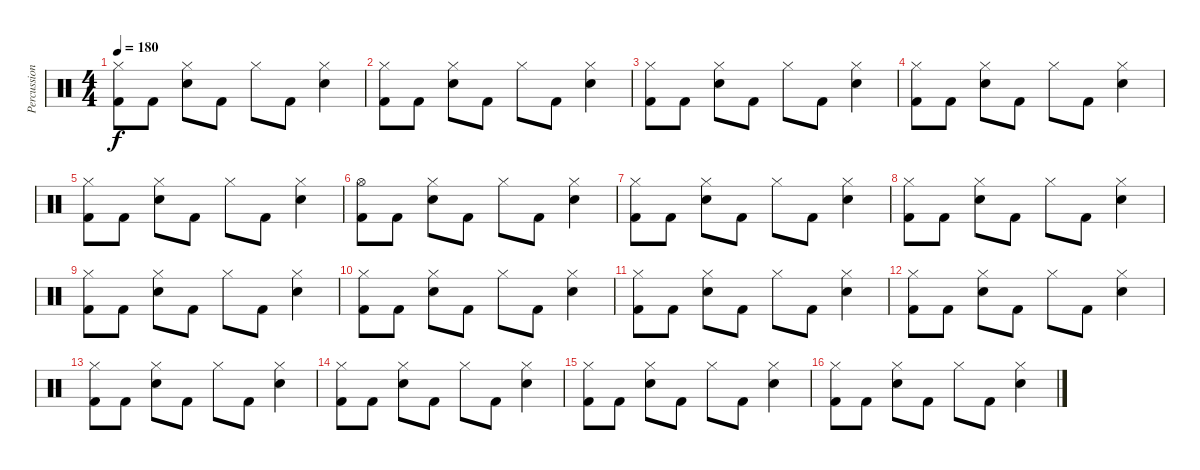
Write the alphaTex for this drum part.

\track ("Percussions" "Percussion") {instrument percussion}
\staff {score}
\articulation defaults
\ts (4 4)
\tempo 180
\clef neutral
\ks c
("Hi-Hat (closed)" "Kick (hit) 2").8{dy f} "Kick (hit) 2".8 ("Hi-Hat (closed)" "Snare (hit) 2").8 "Kick (hit) 2".8 "Hi-Hat (closed)".8 "Kick (hit) 2".8 ("Hi-Hat (closed)" "Snare (hit) 2").4 |
("Hi-Hat (closed)" "Kick (hit) 2").8 "Kick (hit) 2".8 ("Hi-Hat (closed)" "Snare (hit) 2").8 "Kick (hit) 2".8 "Hi-Hat (closed)".8 "Kick (hit) 2".8 ("Hi-Hat (closed)" "Snare (hit) 2").4 |
("Hi-Hat (closed)" "Kick (hit) 2").8 "Kick (hit) 2".8 ("Hi-Hat (closed)" "Snare (hit) 2").8 "Kick (hit) 2".8 "Hi-Hat (closed)".8 "Kick (hit) 2".8 ("Hi-Hat (closed)" "Snare (hit) 2").4 |
("Hi-Hat (closed)" "Kick (hit) 2").8 "Kick (hit) 2".8 ("Hi-Hat (closed)" "Snare (hit) 2").8 "Kick (hit) 2".8 "Hi-Hat (closed)".8 "Kick (hit) 2".8 ("Hi-Hat (closed)" "Snare (hit) 2").4 |
("Hi-Hat (closed)" "Kick (hit) 2").8 "Kick (hit) 2".8 ("Hi-Hat (closed)" "Snare (hit) 2").8 "Kick (hit) 2".8 "Hi-Hat (closed)".8 "Kick (hit) 2".8 ("Hi-Hat (closed)" "Snare (hit) 2").4 |
("Hi-Hat (open)" "Kick (hit) 2").8 "Kick (hit) 2".8 ("Hi-Hat (closed)" "Snare (hit) 2").8 "Kick (hit) 2".8 "Hi-Hat (closed)".8 "Kick (hit) 2".8 ("Hi-Hat (closed)" "Snare (hit) 2").4 |
("Hi-Hat (closed)" "Kick (hit) 2").8 "Kick (hit) 2".8 ("Hi-Hat (closed)" "Snare (hit) 2").8 "Kick (hit) 2".8 "Hi-Hat (closed)".8 "Kick (hit) 2".8 ("Hi-Hat (closed)" "Snare (hit) 2").4 |
("Hi-Hat (closed)" "Kick (hit) 2").8 "Kick (hit) 2".8 ("Hi-Hat (closed)" "Snare (hit) 2").8 "Kick (hit) 2".8 "Hi-Hat (closed)".8 "Kick (hit) 2".8 ("Hi-Hat (closed)" "Snare (hit) 2").4 |
("Hi-Hat (closed)" "Kick (hit) 2").8 "Kick (hit) 2".8 ("Hi-Hat (closed)" "Snare (hit) 2").8 "Kick (hit) 2".8 "Hi-Hat (closed)".8 "Kick (hit) 2".8 ("Hi-Hat (closed)" "Snare (hit) 2").4 |
("Hi-Hat (closed)" "Kick (hit) 2").8 "Kick (hit) 2".8 ("Hi-Hat (closed)" "Snare (hit) 2").8 "Kick (hit) 2".8 "Hi-Hat (closed)".8 "Kick (hit) 2".8 ("Hi-Hat (closed)" "Snare (hit) 2").4 |
("Hi-Hat (closed)" "Kick (hit) 2").8 "Kick (hit) 2".8 ("Hi-Hat (closed)" "Snare (hit) 2").8 "Kick (hit) 2".8 "Hi-Hat (closed)".8 "Kick (hit) 2".8 ("Hi-Hat (closed)" "Snare (hit) 2").4 |
("Hi-Hat (closed)" "Kick (hit) 2").8 "Kick (hit) 2".8 ("Hi-Hat (closed)" "Snare (hit) 2").8 "Kick (hit) 2".8 "Hi-Hat (closed)".8 "Kick (hit) 2".8 ("Hi-Hat (closed)" "Snare (hit) 2").4 |
("Hi-Hat (closed)" "Kick (hit) 2").8 "Kick (hit) 2".8 ("Hi-Hat (closed)" "Snare (hit) 2").8 "Kick (hit) 2".8 "Hi-Hat (closed)".8 "Kick (hit) 2".8 ("Hi-Hat (closed)" "Snare (hit) 2").4 |
("Hi-Hat (closed)" "Kick (hit) 2").8 "Kick (hit) 2".8 ("Hi-Hat (closed)" "Snare (hit) 2").8 "Kick (hit) 2".8 "Hi-Hat (closed)".8 "Kick (hit) 2".8 ("Hi-Hat (closed)" "Snare (hit) 2").4 |
("Hi-Hat (closed)" "Kick (hit) 2").8 "Kick (hit) 2".8 ("Hi-Hat (closed)" "Snare (hit) 2").8 "Kick (hit) 2".8 "Hi-Hat (closed)".8 "Kick (hit) 2".8 ("Hi-Hat (closed)" "Snare (hit) 2").4 |
("Hi-Hat (closed)" "Kick (hit) 2").8 "Kick (hit) 2".8 ("Hi-Hat (closed)" "Snare (hit) 2").8 "Kick (hit) 2".8 "Hi-Hat (closed)".8 "Kick (hit) 2".8 ("Hi-Hat (closed)" "Snare (hit) 2").4
